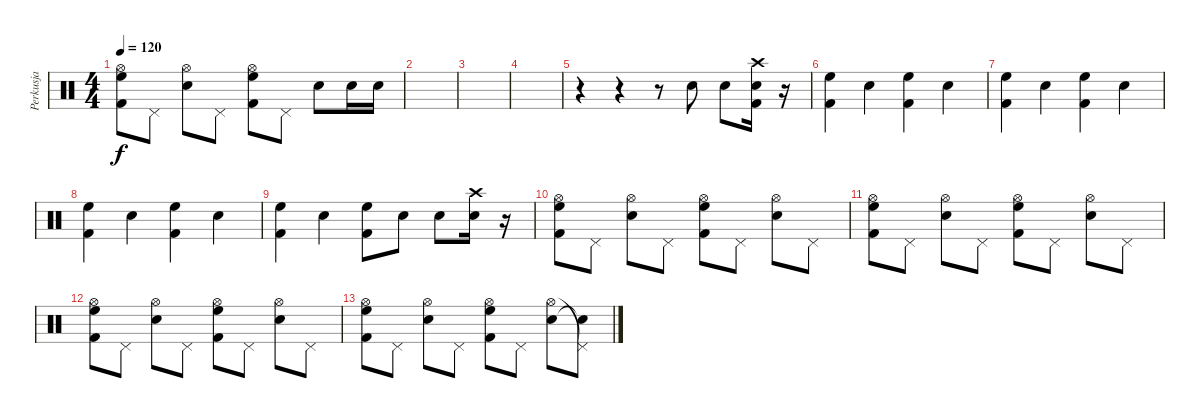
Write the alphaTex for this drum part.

\track ("Perkusja" "Perkusja") {instrument percussion}
\staff {score}
\articulation defaults
\ts (4 4)
\tempo 120
\clef neutral
\ks c
("Hi-Hat (open)" "High Floor Tom (hit)" "Kick (hit) 2").8{dy f} "Pedal Hi-Hat (hit)".8 ("Hi-Hat (open)" "Snare (hit) 2").8 "Pedal Hi-Hat (hit)".8 ("Hi-Hat (open)" "High Floor Tom (hit)" "Kick (hit) 2").8 "Pedal Hi-Hat (hit)".8 "Snare (hit) 2".8 "Snare (hit) 2".16 "Snare (hit) 2".16 |
|
|
|
r.4 r.4 r.8 "Snare (hit) 2".8 "Snare (hit) 2".8 ("Crash high (hit)" "Snare (hit) 2" "Kick (hit) 2").16 r.16 |
("High Floor Tom (hit)" "Kick (hit) 2").4 "Snare (hit) 2".4 ("High Floor Tom (hit)" "Kick (hit) 2").4 "Snare (hit) 2".4 |
("High Floor Tom (hit)" "Kick (hit) 2").4 "Snare (hit) 2".4 ("High Floor Tom (hit)" "Kick (hit) 2").4 "Snare (hit) 2".4 |
("High Floor Tom (hit)" "Kick (hit) 2").4 "Snare (hit) 2".4 ("High Floor Tom (hit)" "Kick (hit) 2").4 "Snare (hit) 2".4 |
("High Floor Tom (hit)" "Kick (hit) 2").4 "Snare (hit) 2".4 ("High Floor Tom (hit)" "Kick (hit) 2").8 "Snare (hit) 2".8 "Snare (hit) 2".8 ("Crash high (hit)" "Snare (hit) 2").16 r.16 |
("Hi-Hat (open)" "High Floor Tom (hit)" "Kick (hit) 2").8 "Pedal Hi-Hat (hit)".8 ("Hi-Hat (open)" "Snare (hit) 2").8 "Pedal Hi-Hat (hit)".8 ("Hi-Hat (open)" "High Floor Tom (hit)" "Kick (hit) 2").8 "Pedal Hi-Hat (hit)".8 ("Hi-Hat (open)" "Snare (hit) 2").8 "Pedal Hi-Hat (hit)".8 |
("Hi-Hat (open)" "High Floor Tom (hit)" "Kick (hit) 2").8 "Pedal Hi-Hat (hit)".8 ("Hi-Hat (open)" "Snare (hit) 2").8 "Pedal Hi-Hat (hit)".8 ("Hi-Hat (open)" "High Floor Tom (hit)" "Kick (hit) 2").8 "Pedal Hi-Hat (hit)".8 ("Hi-Hat (open)" "Snare (hit) 2").8 "Pedal Hi-Hat (hit)".8 |
("Hi-Hat (open)" "High Floor Tom (hit)" "Kick (hit) 2").8 "Pedal Hi-Hat (hit)".8 ("Hi-Hat (open)" "Snare (hit) 2").8 "Pedal Hi-Hat (hit)".8 ("Hi-Hat (open)" "High Floor Tom (hit)" "Kick (hit) 2").8 "Pedal Hi-Hat (hit)".8 ("Hi-Hat (open)" "Snare (hit) 2").8 "Pedal Hi-Hat (hit)".8 |
("Hi-Hat (open)" "High Floor Tom (hit)" "Kick (hit) 2").8 "Pedal Hi-Hat (hit)".8 ("Hi-Hat (open)" "Snare (hit) 2").8 "Pedal Hi-Hat (hit)".8 ("Hi-Hat (open)" "High Floor Tom (hit)" "Kick (hit) 2").8 "Pedal Hi-Hat (hit)".8 ("Hi-Hat (open)" "Snare (hit) 2").8 ("Pedal Hi-Hat (hit)"{t} "Snare (hit)"{t}).8
